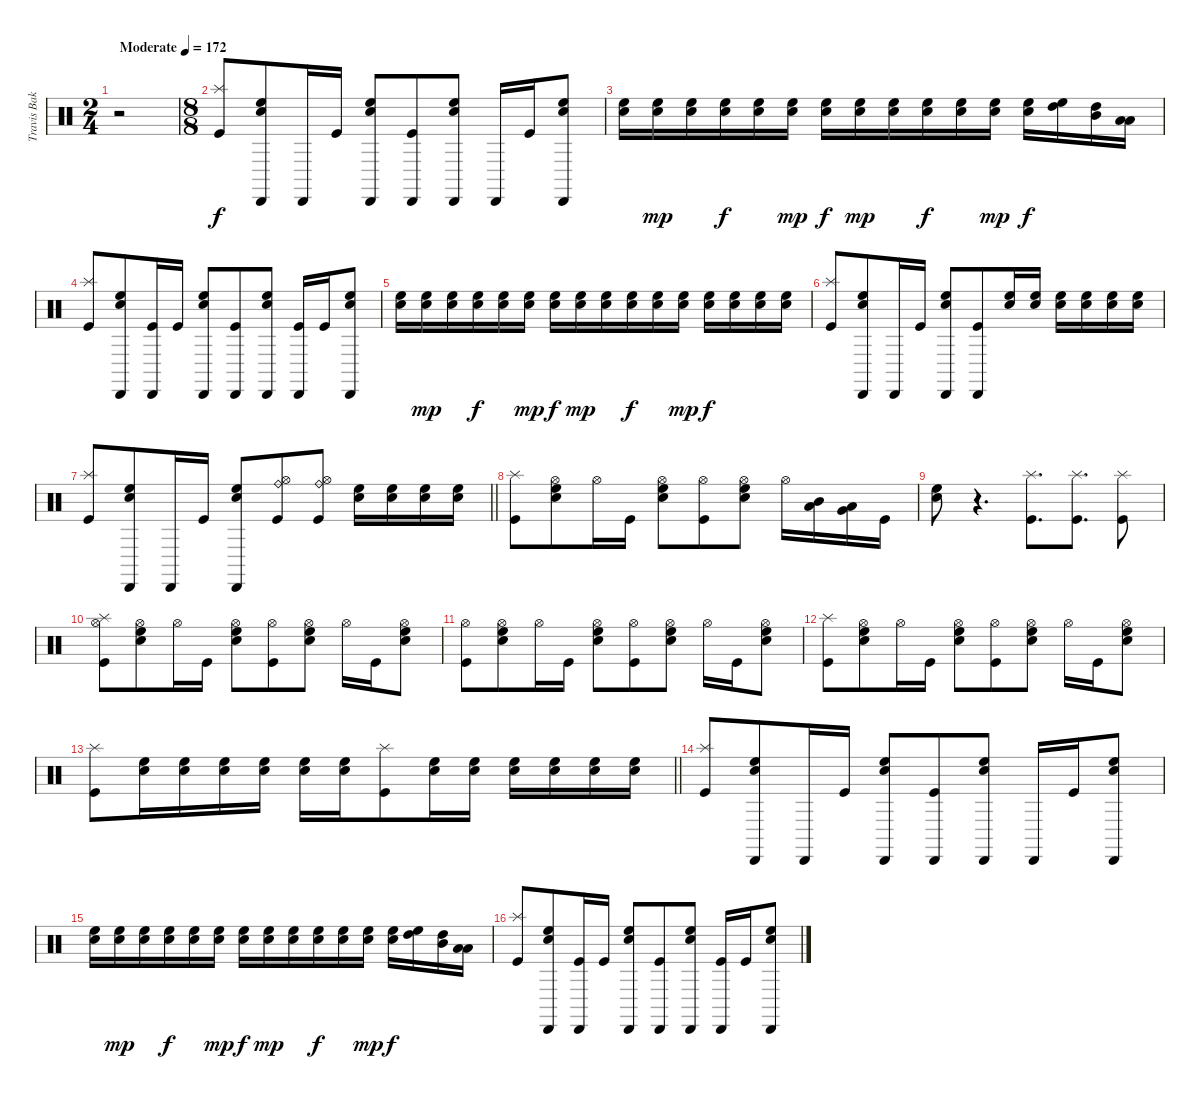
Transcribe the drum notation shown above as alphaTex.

\track ("Travis Baker (Drums)" "Travis Bak") {instrument percussion}
\staff {score}
\articulation defaults
\ts (2 4)
\tempo (172 "Moderate")
\clef neutral
\ks c
r.2{dy f} |
\ts (8 8)
("Splash (hit)" "Kick (hit)").8 ("Cabasa (hit)" "High Floor Tom (hit)" "Electric Snare (hit)").8 "Cabasa (hit)".16 "Kick (hit)".16 ("Cabasa (hit)" "High Floor Tom (hit)" "Electric Snare (hit)").8 ("Cabasa (hit)" "Kick (hit)").8 ("Cabasa (hit)" "High Floor Tom (hit)" "Electric Snare (hit)").8 "Cabasa (hit)".16 "Kick (hit)".16 ("Cabasa (hit)" "High Floor Tom (hit)" "Electric Snare (hit)").8 |
("High Floor Tom (hit)" "Electric Snare (hit)").16 ("Electric Snare (hit)" "High Floor Tom (hit)").16{dy mp} ("Electric Snare (hit)" "High Floor Tom (hit)").16 ("High Floor Tom (hit)" "Electric Snare (hit)").16{dy f} ("High Floor Tom (hit)" "Electric Snare (hit)").16 ("Electric Snare (hit)" "High Floor Tom (hit)").16{dy mp} ("High Floor Tom (hit)" "Electric Snare (hit)").16{dy f} ("Electric Snare (hit)" "High Floor Tom (hit)").16{dy mp} ("Electric Snare (hit)" "High Floor Tom (hit)").16 ("High Floor Tom (hit)" "Electric Snare (hit)").16{dy f} ("High Floor Tom (hit)" "Electric Snare (hit)").16 ("Electric Snare (hit)" "High Floor Tom (hit)").16{dy mp} ("High Floor Tom (hit)" "Electric Snare (hit)").16{dy f} ("High Tom (hit)" "High Floor Tom (hit)").16 ("Mid Tom (hit)" "High Tom (hit)").16 ("Low Floor Tom (hit)" "Low Tom (hit)").16 |
("Splash (hit)" "Kick (hit)").8 ("Cabasa (hit)" "High Floor Tom (hit)" "Electric Snare (hit)").8 ("Cabasa (hit)" "Kick (hit)").16 "Kick (hit)".16 ("Cabasa (hit)" "High Floor Tom (hit)" "Electric Snare (hit)").8 ("Cabasa (hit)" "Kick (hit)").8 ("Cabasa (hit)" "High Floor Tom (hit)" "Electric Snare (hit)").8 ("Cabasa (hit)" "Kick (hit)").16 "Kick (hit)".16 ("Cabasa (hit)" "High Floor Tom (hit)" "Electric Snare (hit)").8 |
("High Floor Tom (hit)" "Electric Snare (hit)").16 ("Electric Snare (hit)" "High Floor Tom (hit)").16{dy mp} ("Electric Snare (hit)" "High Floor Tom (hit)").16 ("High Floor Tom (hit)" "Electric Snare (hit)").16{dy f} ("High Floor Tom (hit)" "Electric Snare (hit)").16 ("Electric Snare (hit)" "High Floor Tom (hit)").16{dy mp} ("High Floor Tom (hit)" "Electric Snare (hit)").16{dy f} ("Electric Snare (hit)" "High Floor Tom (hit)").16{dy mp} ("Electric Snare (hit)" "High Floor Tom (hit)").16 ("High Floor Tom (hit)" "Electric Snare (hit)").16{dy f} ("High Floor Tom (hit)" "Electric Snare (hit)").16 ("Electric Snare (hit)" "High Floor Tom (hit)").16{dy mp} ("High Floor Tom (hit)" "Electric Snare (hit)").16{dy f} ("High Floor Tom (hit)" "Electric Snare (hit)").16 ("High Floor Tom (hit)" "Electric Snare (hit)").16 ("High Floor Tom (hit)" "Electric Snare (hit)").16 |
("Splash (hit)" "Kick (hit)").8 ("Cabasa (hit)" "High Floor Tom (hit)" "Electric Snare (hit)").8 "Cabasa (hit)".16 "Kick (hit)".16 ("Cabasa (hit)" "High Floor Tom (hit)" "Electric Snare (hit)").8 ("Cabasa (hit)" "Kick (hit)").8 ("High Floor Tom (hit)" "Electric Snare (hit)").16 ("High Floor Tom (hit)" "Electric Snare (hit)").16 ("High Floor Tom (hit)" "Electric Snare (hit)").16 ("High Floor Tom (hit)" "Electric Snare (hit)").16 ("High Floor Tom (hit)" "Electric Snare (hit)").16 ("High Floor Tom (hit)" "Electric Snare (hit)").16 |
\barLineRight lightlight
("Splash (hit)" "Kick (hit)").8 ("Cabasa (hit)" "High Floor Tom (hit)" "Electric Snare (hit)").8 "Cabasa (hit)".16 "Kick (hit)".16 ("Cabasa (hit)" "High Floor Tom (hit)" "Electric Snare (hit)").8 ("Ride (bell)" "Hi-Hat (open)" "Kick (hit)").8 ("Ride (bell)" "Hi-Hat (open)" "Kick (hit)").8 ("High Floor Tom (hit)" "Electric Snare (hit)").16 ("High Floor Tom (hit)" "Electric Snare (hit)").16 ("High Floor Tom (hit)" "Electric Snare (hit)").16 ("High Floor Tom (hit)" "Electric Snare (hit)").16 |
("Splash (hit)" "Kick (hit)").8 ("Hi-Hat (open)" "High Floor Tom (hit)" "Electric Snare (hit)").8 "Hi-Hat (open)".16 "Kick (hit)".16 ("Hi-Hat (open)" "High Floor Tom (hit)" "Electric Snare (hit)").8 ("Hi-Hat (open)" "Kick (hit)").8 ("Hi-Hat (open)" "High Floor Tom (hit)" "Electric Snare (hit)").8 "Hi-Hat (open)".16 ("Low Tom (hit)" "Mid Tom (hit)").16 ("Very Low Tom (hit)" "Low Floor Tom (hit)").16 "Kick (hit)".16 |
("High Floor Tom (hit)" "Electric Snare (hit)").8 r.4{d} ("Splash (hit)" "Kick (hit)").8{d} ("Splash (hit)" "Kick (hit)").8{d} ("Splash (hit)" "Kick (hit)").8 |
("Splash (hit)" "Hi-Hat (open)" "Kick (hit)").8 ("Hi-Hat (open)" "High Floor Tom (hit)" "Electric Snare (hit)").8 "Hi-Hat (open)".16 "Kick (hit)".16 ("Hi-Hat (open)" "High Floor Tom (hit)" "Electric Snare (hit)").8 ("Hi-Hat (open)" "Kick (hit)").8 ("Hi-Hat (open)" "High Floor Tom (hit)" "Electric Snare (hit)").8 "Hi-Hat (open)".16 "Kick (hit)".16 ("Hi-Hat (open)" "High Floor Tom (hit)" "Electric Snare (hit)").8 |
("Hi-Hat (open)" "Kick (hit)").8 ("Hi-Hat (open)" "High Floor Tom (hit)" "Electric Snare (hit)").8 "Hi-Hat (open)".16 "Kick (hit)".16 ("Hi-Hat (open)" "High Floor Tom (hit)" "Electric Snare (hit)").8 ("Hi-Hat (open)" "Kick (hit)").8 ("Hi-Hat (open)" "High Floor Tom (hit)" "Electric Snare (hit)").8 "Hi-Hat (open)".16 "Kick (hit)".16 ("Hi-Hat (open)" "High Floor Tom (hit)" "Electric Snare (hit)").8 |
("Splash (hit)" "Kick (hit)").8 ("Hi-Hat (open)" "High Floor Tom (hit)" "Electric Snare (hit)").8 "Hi-Hat (open)".16 "Kick (hit)".16 ("Hi-Hat (open)" "High Floor Tom (hit)" "Electric Snare (hit)").8 ("Hi-Hat (open)" "Kick (hit)").8 ("Hi-Hat (open)" "High Floor Tom (hit)" "Electric Snare (hit)").8 "Hi-Hat (open)".16 "Kick (hit)".16 ("Hi-Hat (open)" "High Floor Tom (hit)" "Electric Snare (hit)").8 |
\barLineRight lightlight
("Splash (hit)" "Kick (hit)").8 ("High Floor Tom (hit)" "Electric Snare (hit)").16 ("High Floor Tom (hit)" "Electric Snare (hit)").16 ("High Floor Tom (hit)" "Electric Snare (hit)").16 ("High Floor Tom (hit)" "Electric Snare (hit)").16 ("High Floor Tom (hit)" "Electric Snare (hit)").16 ("High Floor Tom (hit)" "Electric Snare (hit)").16 ("Splash (hit)" "Kick (hit)").8 ("High Floor Tom (hit)" "Electric Snare (hit)").16 ("High Floor Tom (hit)" "Electric Snare (hit)").16 ("High Floor Tom (hit)" "Electric Snare (hit)").16 ("High Floor Tom (hit)" "Electric Snare (hit)").16 ("High Floor Tom (hit)" "Electric Snare (hit)").16 ("High Floor Tom (hit)" "Electric Snare (hit)").16 |
("Splash (hit)" "Kick (hit)").8 ("Cabasa (hit)" "High Floor Tom (hit)" "Electric Snare (hit)").8 "Cabasa (hit)".16 "Kick (hit)".16 ("Cabasa (hit)" "High Floor Tom (hit)" "Electric Snare (hit)").8 ("Cabasa (hit)" "Kick (hit)").8 ("Cabasa (hit)" "High Floor Tom (hit)" "Electric Snare (hit)").8 "Cabasa (hit)".16 "Kick (hit)".16 ("Cabasa (hit)" "High Floor Tom (hit)" "Electric Snare (hit)").8 |
("High Floor Tom (hit)" "Electric Snare (hit)").16 ("Electric Snare (hit)" "High Floor Tom (hit)").16{dy mp} ("Electric Snare (hit)" "High Floor Tom (hit)").16 ("High Floor Tom (hit)" "Electric Snare (hit)").16{dy f} ("High Floor Tom (hit)" "Electric Snare (hit)").16 ("Electric Snare (hit)" "High Floor Tom (hit)").16{dy mp} ("High Floor Tom (hit)" "Electric Snare (hit)").16{dy f} ("Electric Snare (hit)" "High Floor Tom (hit)").16{dy mp} ("Electric Snare (hit)" "High Floor Tom (hit)").16 ("High Floor Tom (hit)" "Electric Snare (hit)").16{dy f} ("High Floor Tom (hit)" "Electric Snare (hit)").16 ("Electric Snare (hit)" "High Floor Tom (hit)").16{dy mp} ("High Floor Tom (hit)" "Electric Snare (hit)").16{dy f} ("High Tom (hit)" "High Floor Tom (hit)").16 ("Mid Tom (hit)" "High Tom (hit)").16 ("Low Floor Tom (hit)" "Low Tom (hit)").16 |
("Splash (hit)" "Kick (hit)").8 ("Cabasa (hit)" "High Floor Tom (hit)" "Electric Snare (hit)").8 ("Cabasa (hit)" "Kick (hit)").16 "Kick (hit)".16 ("Cabasa (hit)" "High Floor Tom (hit)" "Electric Snare (hit)").8 ("Cabasa (hit)" "Kick (hit)").8 ("Cabasa (hit)" "High Floor Tom (hit)" "Electric Snare (hit)").8 ("Cabasa (hit)" "Kick (hit)").16 "Kick (hit)".16 ("Cabasa (hit)" "High Floor Tom (hit)" "Electric Snare (hit)").8
